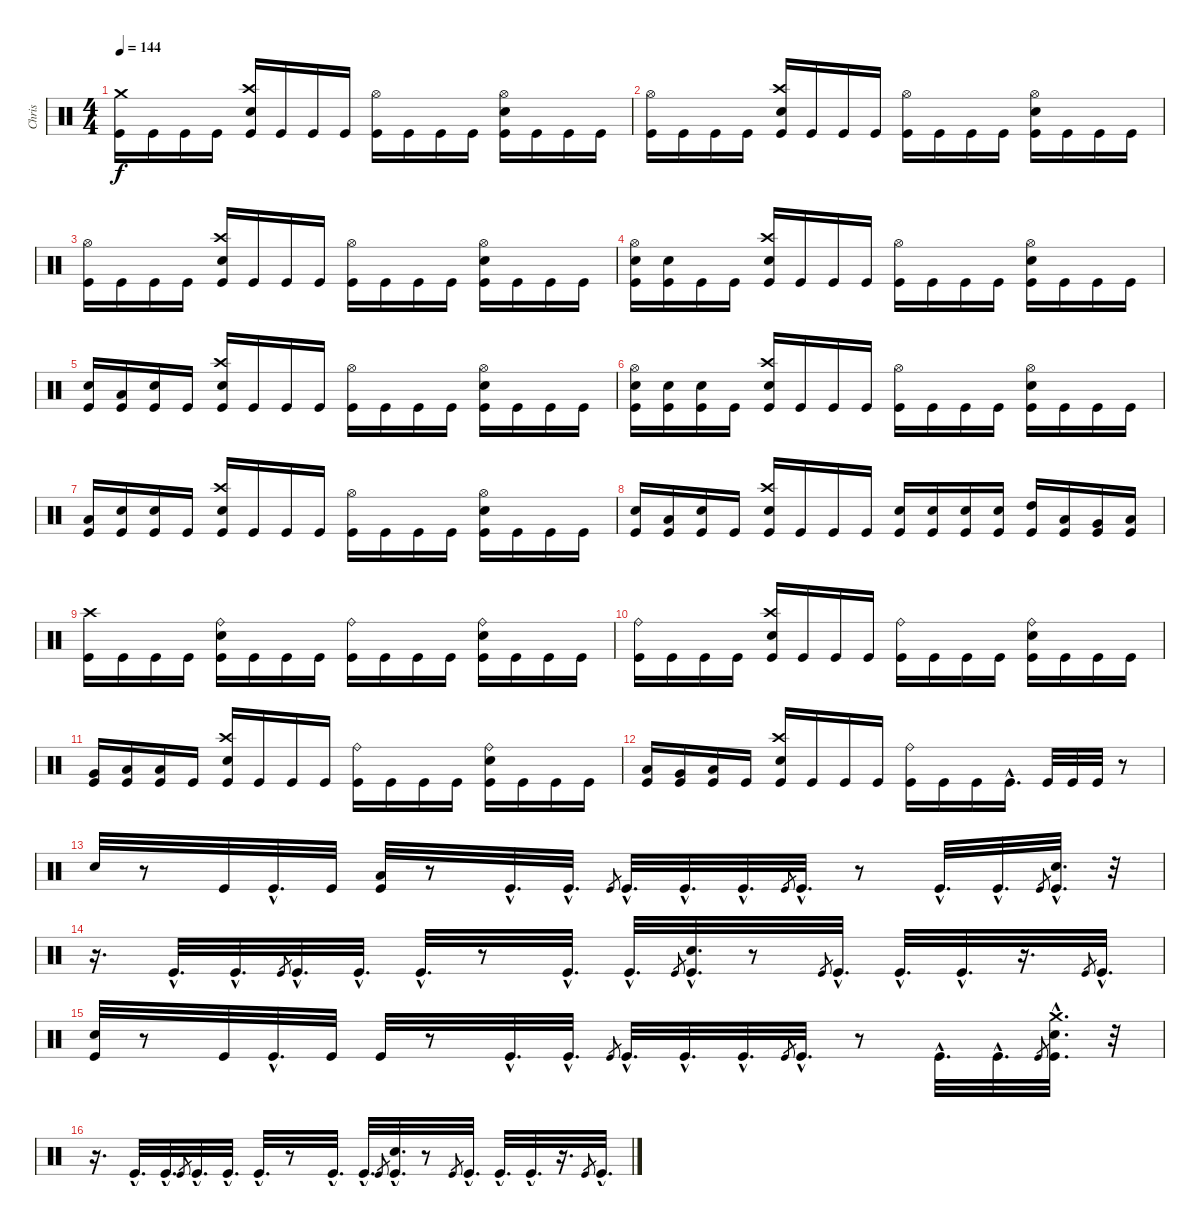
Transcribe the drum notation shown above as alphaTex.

\track ("Chris" "Chris") {instrument percussion}
\staff {score}
\articulation defaults
\ts (4 4)
\tempo 144
\clef neutral
\ks c
("Crash medium (hit)" "Kick (hit)").16{dy f} "Kick (hit)".16 "Kick (hit)".16 "Kick (hit)".16 ("Crash high (hit)" "Electric Snare (hit)" "Kick (hit)").16 "Kick (hit)".16 "Kick (hit)".16 "Kick (hit)".16 ("Hi-Hat (open)" "Kick (hit)").16 "Kick (hit)".16 "Kick (hit)".16 "Kick (hit)".16 ("Hi-Hat (open)" "Electric Snare (hit)" "Kick (hit)").16 "Kick (hit)".16 "Kick (hit)".16 "Kick (hit)".16 |
("Hi-Hat (open)" "Kick (hit)").16 "Kick (hit)".16 "Kick (hit)".16 "Kick (hit)".16 ("Crash high (hit)" "Electric Snare (hit)" "Kick (hit)").16 "Kick (hit)".16 "Kick (hit)".16 "Kick (hit)".16 ("Hi-Hat (open)" "Kick (hit)").16 "Kick (hit)".16 "Kick (hit)".16 "Kick (hit)".16 ("Hi-Hat (open)" "Electric Snare (hit)" "Kick (hit)").16 "Kick (hit)".16 "Kick (hit)".16 "Kick (hit)".16 |
("Hi-Hat (open)" "Kick (hit)").16 "Kick (hit)".16 "Kick (hit)".16 "Kick (hit)".16 ("Crash high (hit)" "Electric Snare (hit)" "Kick (hit)").16 "Kick (hit)".16 "Kick (hit)".16 "Kick (hit)".16 ("Hi-Hat (open)" "Kick (hit)").16 "Kick (hit)".16 "Kick (hit)".16 "Kick (hit)".16 ("Hi-Hat (open)" "Electric Snare (hit)" "Kick (hit)").16 "Kick (hit)".16 "Kick (hit)".16 "Kick (hit)".16 |
("Hi-Hat (open)" "Electric Snare (hit)" "Kick (hit)").16 ("Electric Snare (hit)" "Kick (hit)").16 "Kick (hit)".16 "Kick (hit)".16 ("Crash high (hit)" "Electric Snare (hit)" "Kick (hit)").16 "Kick (hit)".16 "Kick (hit)".16 "Kick (hit)".16 ("Hi-Hat (open)" "Kick (hit)").16 "Kick (hit)".16 "Kick (hit)".16 "Kick (hit)".16 ("Hi-Hat (open)" "Electric Snare (hit)" "Kick (hit)").16 "Kick (hit)".16 "Kick (hit)".16 "Kick (hit)".16 |
("Electric Snare (hit)" "Kick (hit)").16 ("Low Tom (hit)" "Kick (hit)").16 ("Electric Snare (hit)" "Kick (hit)").16 "Kick (hit)".16 ("Crash high (hit)" "Electric Snare (hit)" "Kick (hit)").16 "Kick (hit)".16 "Kick (hit)".16 "Kick (hit)".16 ("Hi-Hat (open)" "Kick (hit)").16 "Kick (hit)".16 "Kick (hit)".16 "Kick (hit)".16 ("Hi-Hat (open)" "Electric Snare (hit)" "Kick (hit)").16 "Kick (hit)".16 "Kick (hit)".16 "Kick (hit)".16 |
("Hi-Hat (open)" "Electric Snare (hit)" "Kick (hit)").16 ("Electric Snare (hit)" "Kick (hit)").16 ("Electric Snare (hit)" "Kick (hit)").16 "Kick (hit)".16 ("Crash high (hit)" "Electric Snare (hit)" "Kick (hit)").16 "Kick (hit)".16 "Kick (hit)".16 "Kick (hit)".16 ("Hi-Hat (open)" "Kick (hit)").16 "Kick (hit)".16 "Kick (hit)".16 "Kick (hit)".16 ("Hi-Hat (open)" "Electric Snare (hit)" "Kick (hit)").16 "Kick (hit)".16 "Kick (hit)".16 "Kick (hit)".16 |
("Low Tom (hit)" "Kick (hit)").16 ("Electric Snare (hit)" "Kick (hit)").16 ("Electric Snare (hit)" "Kick (hit)").16 "Kick (hit)".16 ("Crash high (hit)" "Electric Snare (hit)" "Kick (hit)").16 "Kick (hit)".16 "Kick (hit)".16 "Kick (hit)".16 ("Hi-Hat (open)" "Kick (hit)").16 "Kick (hit)".16 "Kick (hit)".16 "Kick (hit)".16 ("Hi-Hat (open)" "Electric Snare (hit)" "Kick (hit)").16 "Kick (hit)".16 "Kick (hit)".16 "Kick (hit)".16 |
("Electric Snare (hit)" "Kick (hit)").16 ("Low Tom (hit)" "Kick (hit)").16 ("Electric Snare (hit)" "Kick (hit)").16 "Kick (hit)".16 ("Crash high (hit)" "Electric Snare (hit)" "Kick (hit)").16 "Kick (hit)".16 "Kick (hit)".16 "Kick (hit)".16 ("Electric Snare (hit)" "Kick (hit)").16 ("Electric Snare (hit)" "Kick (hit)").16 ("Electric Snare (hit)" "Kick (hit)").16 ("Electric Snare (hit)" "Kick (hit)").16 ("High Tom (hit)" "Kick (hit)").16 ("Low Tom (hit)" "Kick (hit)").16 ("Very Low Tom (hit)" "Kick (hit)").16 ("Low Floor Tom (hit)" "Kick (hit)").16 |
("Crash high (hit)" "Kick (hit)").16 "Kick (hit)".16 "Kick (hit)".16 "Kick (hit)".16 ("Ride (bell)" "Electric Snare (hit)" "Kick (hit)").16 "Kick (hit)".16 "Kick (hit)".16 "Kick (hit)".16 ("Ride (bell)" "Kick (hit)").16 "Kick (hit)".16 "Kick (hit)".16 "Kick (hit)".16 ("Ride (bell)" "Electric Snare (hit)" "Kick (hit)").16 "Kick (hit)".16 "Kick (hit)".16 "Kick (hit)".16 |
("Ride (bell)" "Kick (hit)").16 "Kick (hit)".16 "Kick (hit)".16 "Kick (hit)".16 ("Crash high (hit)" "Electric Snare (hit)" "Kick (hit)").16 "Kick (hit)".16 "Kick (hit)".16 "Kick (hit)".16 ("Ride (bell)" "Kick (hit)").16 "Kick (hit)".16 "Kick (hit)".16 "Kick (hit)".16 ("Ride (bell)" "Electric Snare (hit)" "Kick (hit)").16 "Kick (hit)".16 "Kick (hit)".16 "Kick (hit)".16 |
("Very Low Tom (hit)" "Kick (hit)").16 ("Low Tom (hit)" "Kick (hit)").16 ("Low Floor Tom (hit)" "Kick (hit)").16 "Kick (hit)".16 ("Crash high (hit)" "Electric Snare (hit)" "Kick (hit)").16 "Kick (hit)".16 "Kick (hit)".16 "Kick (hit)".16 ("Ride (bell)" "Kick (hit)").16 "Kick (hit)".16 "Kick (hit)".16 "Kick (hit)".16 ("Ride (bell)" "Electric Snare (hit)" "Kick (hit)").16 "Kick (hit)".16 "Kick (hit)".16 "Kick (hit)".16 |
("Low Tom (hit)" "Kick (hit)").16 ("Very Low Tom (hit)" "Kick (hit)").16 ("Low Floor Tom (hit)" "Kick (hit)").16 "Kick (hit)".16 ("Crash high (hit)" "Electric Snare (hit)" "Kick (hit)").16 "Kick (hit)".16 "Kick (hit)".16 "Kick (hit)".16 ("Ride (bell)" "Kick (hit)").16 "Kick (hit)".16 "Kick (hit)".16 "Kick (hit)"{hac}.16{d} "Kick (hit)".32 "Kick (hit)".32 "Kick (hit)".32 r.8 |
"Electric Snare (hit)".32 r.8 "Kick (hit)".32 "Kick (hit)"{hac}.32{d} "Kick (hit)".32 ("Low Floor Tom (hit)" "Kick (hit)").32 r.8 "Kick (hit)"{hac}.32{d} "Kick (hit)"{hac}.32{d} "Kick (hit)".8{gr} "Kick (hit)"{hac}.32{d} "Kick (hit)"{hac}.32{d} "Kick (hit)"{hac}.32{d} "Kick (hit)".8{gr} "Kick (hit)"{hac}.32{d} r.8 "Kick (hit)"{hac}.32{d} "Kick (hit)"{hac}.32{d} "Kick (hit)".8{gr} ("Electric Snare (hit)"{hac} "Kick (hit)"{hac}).32{d} r.32 |
r.16{d} "Kick (hit)"{hac}.32{d} "Kick (hit)"{hac}.32{d} "Kick (hit)".8{gr} "Kick (hit)"{hac}.32{d} "Kick (hit)"{hac}.32{d} "Kick (hit)"{hac}.32{d} r.8 "Kick (hit)"{hac}.32{d} "Kick (hit)"{hac}.32{d} "Kick (hit)".8{gr} ("Electric Snare (hit)"{hac} "Kick (hit)"{hac}).32{d} r.8 "Kick (hit)".8{gr} "Kick (hit)"{hac}.32{d} "Kick (hit)"{hac}.32{d} "Kick (hit)"{hac}.32{d} r.16{d} "Kick (hit)".8{gr} "Kick (hit)"{hac}.32{d} |
("Electric Snare (hit)" "Kick (hit)").32 r.8 "Kick (hit)".32 "Kick (hit)"{hac}.32{d} "Kick (hit)".32 "Kick (hit)".32 r.8 "Kick (hit)"{hac}.32{d} "Kick (hit)"{hac}.32{d} "Kick (hit)".8{gr} "Kick (hit)"{hac}.32{d} "Kick (hit)"{hac}.32{d} "Kick (hit)"{hac}.32{d} "Kick (hit)".8{gr} "Kick (hit)"{hac}.32{d} r.8 "Kick (hit)"{hac}.32{d} "Kick (hit)"{hac}.32{d} "Kick (hit)".8{gr} ("Crash medium (hit)"{hac} "Electric Snare (hit)"{hac} "Kick (hit)"{hac}).32{d} r.32 |
r.16{d} "Kick (hit)"{hac}.32{d} "Kick (hit)"{hac}.32{d} "Kick (hit)".8{gr} "Kick (hit)"{hac}.32{d} "Kick (hit)"{hac}.32{d} "Kick (hit)"{hac}.32{d} r.8 "Kick (hit)"{hac}.32{d} "Kick (hit)"{hac}.32{d} "Kick (hit)".8{gr} ("Electric Snare (hit)"{hac} "Kick (hit)"{hac}).32{d} r.8 "Kick (hit)".8{gr} "Kick (hit)"{hac}.32{d} "Kick (hit)"{hac}.32{d} "Kick (hit)"{hac}.32{d} r.16{d} "Kick (hit)".8{gr} "Kick (hit)"{hac}.32{d}
